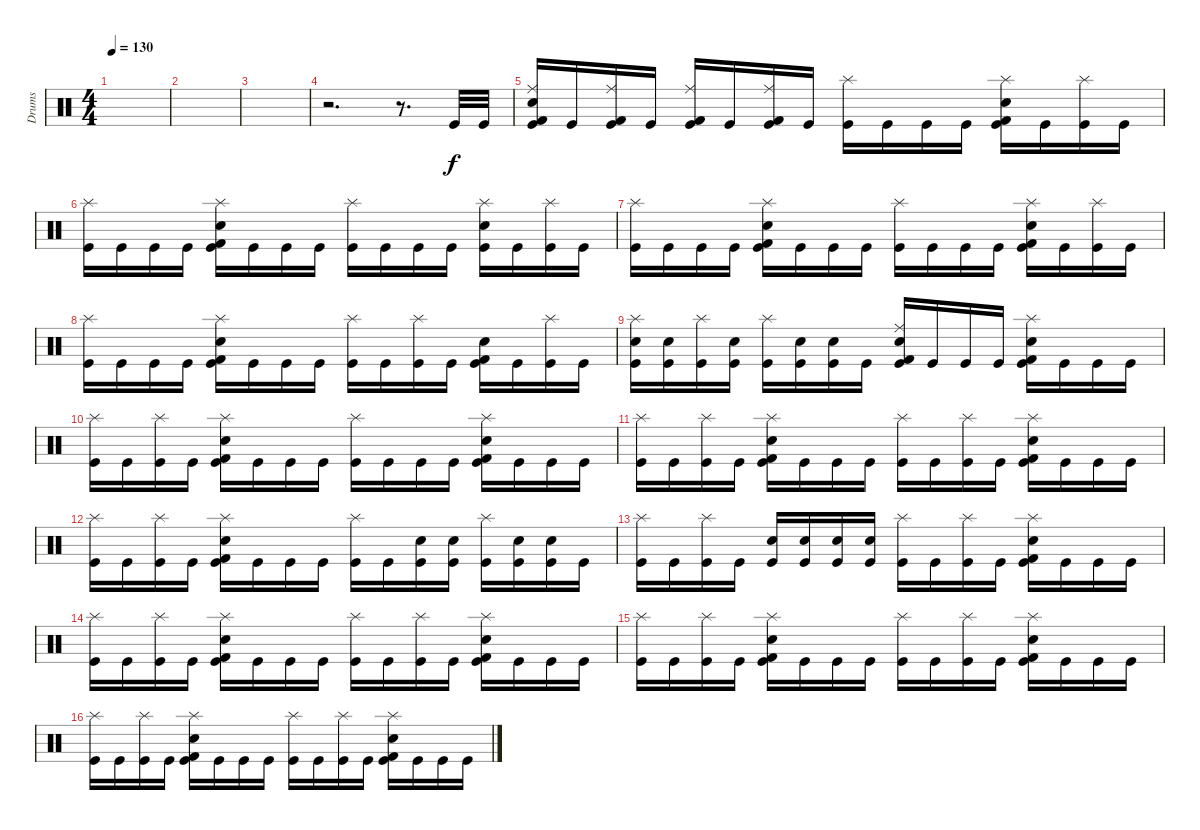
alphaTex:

\track ("Drums" "Drums") {instrument percussion}
\staff {score}
\articulation defaults
\ts (4 4)
\tempo 130
\clef neutral
\ks c
|
|
|
r.2{d} r.8{d} "Kick (hit)".32 "Kick (hit)".32 |
("Ride (middle)" "Kick (hit) 2" "Electric Snare (hit)" "Kick (hit)").16 "Kick (hit)".16 ("Ride (middle)" "Kick (hit) 2" "Kick (hit)").16 "Kick (hit)".16 ("Ride (middle)" "Kick (hit) 2" "Kick (hit)").16 "Kick (hit)".16 ("Ride (middle)" "Kick (hit) 2" "Kick (hit)").16 "Kick (hit)".16 ("Splash (hit)" "Kick (hit)").16 "Kick (hit)".16 "Kick (hit)".16 "Kick (hit)".16 ("Kick (hit) 2" "Electric Snare (hit)" "Splash (hit)" "Kick (hit)").16 "Kick (hit)".16 ("Splash (hit)" "Kick (hit)").16 "Kick (hit)".16 |
("Splash (hit)" "Kick (hit)").16 "Kick (hit)".16 "Kick (hit)".16 "Kick (hit)".16 ("Kick (hit) 2" "Electric Snare (hit)" "Splash (hit)" "Kick (hit)").16 "Kick (hit)".16 "Kick (hit)".16 "Kick (hit)".16 ("Splash (hit)" "Kick (hit)").16 "Kick (hit)".16 "Kick (hit)".16 "Kick (hit)".16 ("Electric Snare (hit)" "Splash (hit)" "Kick (hit)").16 "Kick (hit)".16 ("Splash (hit)" "Kick (hit)").16 "Kick (hit)".16 |
("Splash (hit)" "Kick (hit)").16 "Kick (hit)".16 "Kick (hit)".16 "Kick (hit)".16 ("Kick (hit) 2" "Electric Snare (hit)" "Splash (hit)" "Kick (hit)").16 "Kick (hit)".16 "Kick (hit)".16 "Kick (hit)".16 ("Splash (hit)" "Kick (hit)").16 "Kick (hit)".16 "Kick (hit)".16 "Kick (hit)".16 ("Kick (hit) 2" "Electric Snare (hit)" "Splash (hit)" "Kick (hit)").16 "Kick (hit)".16 ("Splash (hit)" "Kick (hit)").16 "Kick (hit)".16 |
("Splash (hit)" "Kick (hit)").16 "Kick (hit)".16 "Kick (hit)".16 "Kick (hit)".16 ("Kick (hit) 2" "Electric Snare (hit)" "Splash (hit)" "Kick (hit)").16 "Kick (hit)".16 "Kick (hit)".16 "Kick (hit)".16 ("Splash (hit)" "Kick (hit)").16 "Kick (hit)".16 ("Splash (hit)" "Kick (hit)").16 "Kick (hit)".16 ("Kick (hit) 2" "Electric Snare (hit)" "Kick (hit)").16 "Kick (hit)".16 ("Splash (hit)" "Kick (hit)").16 "Kick (hit)".16 |
("Electric Snare (hit)" "Splash (hit)" "Kick (hit)").16 ("Electric Snare (hit)" "Kick (hit)").16 ("Splash (hit)" "Kick (hit)").16 ("Electric Snare (hit)" "Kick (hit)").16 ("Splash (hit)" "Kick (hit)").16 ("Electric Snare (hit)" "Kick (hit)").16 ("Electric Snare (hit)" "Kick (hit)").16 "Kick (hit)".16 ("Ride (middle)" "Kick (hit) 2" "Electric Snare (hit)" "Kick (hit)").16 "Kick (hit)".16 "Kick (hit)".16 "Kick (hit)".16 ("Kick (hit) 2" "Electric Snare (hit)" "Splash (hit)" "Kick (hit)").16 "Kick (hit)".16 "Kick (hit)".16 "Kick (hit)".16 |
("Splash (hit)" "Kick (hit)").16 "Kick (hit)".16 ("Splash (hit)" "Kick (hit)").16 "Kick (hit)".16 ("Kick (hit) 2" "Electric Snare (hit)" "Splash (hit)" "Kick (hit)").16 "Kick (hit)".16 "Kick (hit)".16 "Kick (hit)".16 ("Splash (hit)" "Kick (hit)").16 "Kick (hit)".16 "Kick (hit)".16 "Kick (hit)".16 ("Kick (hit) 2" "Electric Snare (hit)" "Splash (hit)" "Kick (hit)").16 "Kick (hit)".16 "Kick (hit)".16 "Kick (hit)".16 |
("Splash (hit)" "Kick (hit)").16 "Kick (hit)".16 ("Splash (hit)" "Kick (hit)").16 "Kick (hit)".16 ("Kick (hit) 2" "Electric Snare (hit)" "Splash (hit)" "Kick (hit)").16 "Kick (hit)".16 "Kick (hit)".16 "Kick (hit)".16 ("Splash (hit)" "Kick (hit)").16 "Kick (hit)".16 ("Splash (hit)" "Kick (hit)").16 "Kick (hit)".16 ("Kick (hit) 2" "Electric Snare (hit)" "Splash (hit)" "Kick (hit)").16 "Kick (hit)".16 "Kick (hit)".16 "Kick (hit)".16 |
("Splash (hit)" "Kick (hit)").16 "Kick (hit)".16 ("Splash (hit)" "Kick (hit)").16 "Kick (hit)".16 ("Kick (hit) 2" "Electric Snare (hit)" "Splash (hit)" "Kick (hit)").16 "Kick (hit)".16 "Kick (hit)".16 "Kick (hit)".16 ("Splash (hit)" "Kick (hit)").16 "Kick (hit)".16 ("Electric Snare (hit)" "Kick (hit)").16 ("Electric Snare (hit)" "Kick (hit)").16 ("Splash (hit)" "Kick (hit)").16 ("Electric Snare (hit)" "Kick (hit)").16 ("Electric Snare (hit)" "Kick (hit)").16 "Kick (hit)".16 |
("Splash (hit)" "Kick (hit)").16 "Kick (hit)".16 ("Splash (hit)" "Kick (hit)").16 "Kick (hit)".16 ("Electric Snare (hit)" "Kick (hit)").16 ("Electric Snare (hit)" "Kick (hit)").16 ("Electric Snare (hit)" "Kick (hit)").16 ("Electric Snare (hit)" "Kick (hit)").16 ("Splash (hit)" "Kick (hit)").16 "Kick (hit)".16 ("Splash (hit)" "Kick (hit)").16 "Kick (hit)".16 ("Kick (hit) 2" "Electric Snare (hit)" "Splash (hit)" "Kick (hit)").16 "Kick (hit)".16 "Kick (hit)".16 "Kick (hit)".16 |
("Splash (hit)" "Kick (hit)").16 "Kick (hit)".16 ("Splash (hit)" "Kick (hit)").16 "Kick (hit)".16 ("Kick (hit) 2" "Electric Snare (hit)" "Splash (hit)" "Kick (hit)").16 "Kick (hit)".16 "Kick (hit)".16 "Kick (hit)".16 ("Splash (hit)" "Kick (hit)").16 "Kick (hit)".16 ("Splash (hit)" "Kick (hit)").16 "Kick (hit)".16 ("Kick (hit) 2" "Electric Snare (hit)" "Splash (hit)" "Kick (hit)").16 "Kick (hit)".16 "Kick (hit)".16 "Kick (hit)".16 |
("Splash (hit)" "Kick (hit)").16 "Kick (hit)".16 ("Splash (hit)" "Kick (hit)").16 "Kick (hit)".16 ("Kick (hit) 2" "Electric Snare (hit)" "Splash (hit)" "Kick (hit)").16 "Kick (hit)".16 "Kick (hit)".16 "Kick (hit)".16 ("Splash (hit)" "Kick (hit)").16 "Kick (hit)".16 ("Splash (hit)" "Kick (hit)").16 "Kick (hit)".16 ("Kick (hit) 2" "Electric Snare (hit)" "Splash (hit)" "Kick (hit)").16 "Kick (hit)".16 "Kick (hit)".16 "Kick (hit)".16 |
("Splash (hit)" "Kick (hit)").16 "Kick (hit)".16 ("Splash (hit)" "Kick (hit)").16 "Kick (hit)".16 ("Kick (hit) 2" "Electric Snare (hit)" "Splash (hit)" "Kick (hit)").16 "Kick (hit)".16 "Kick (hit)".16 "Kick (hit)".16 ("Splash (hit)" "Kick (hit)").16 "Kick (hit)".16 ("Splash (hit)" "Kick (hit)").16 "Kick (hit)".16 ("Kick (hit) 2" "Electric Snare (hit)" "Splash (hit)" "Kick (hit)").16 "Kick (hit)".16 "Kick (hit)".16 "Kick (hit)".16
